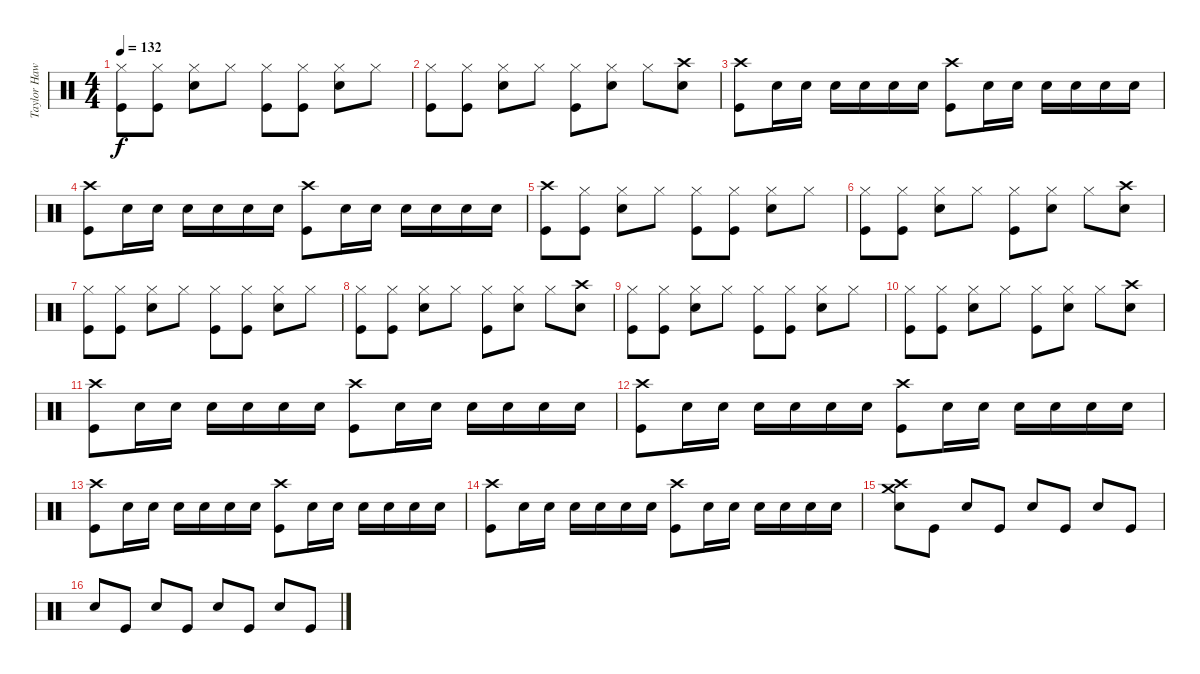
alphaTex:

\track ("Taylor Hawkins (Drums)" "Taylor Haw") {instrument percussion}
\staff {score}
\articulation defaults
\ts (4 4)
\tempo 132
\clef neutral
\ks c
("Kick (hit)" "Hi-Hat (closed)").8{dy f} ("Hi-Hat (closed)" "Kick (hit)").8 ("Hi-Hat (closed)" "Snare (hit) 2").8 "Hi-Hat (closed)".8 ("Hi-Hat (closed)" "Kick (hit)").8 ("Hi-Hat (closed)" "Kick (hit)").8 ("Hi-Hat (closed)" "Snare (hit) 2").8 "Hi-Hat (closed)".8 |
("Hi-Hat (closed)" "Kick (hit)").8 ("Hi-Hat (closed)" "Kick (hit)").8 ("Hi-Hat (closed)" "Snare (hit) 2").8 "Hi-Hat (closed)".8 ("Hi-Hat (closed)" "Kick (hit)").8 ("Hi-Hat (closed)" "Snare (hit) 2").8 "Hi-Hat (closed)".8 ("Crash high (hit)" "Snare (hit) 2").8 |
("Crash high (hit)" "Kick (hit)").8 "Snare (hit) 2".16 "Snare (hit) 2".16 "Snare (hit) 2".16 "Snare (hit) 2".16 "Snare (hit) 2".16 "Snare (hit) 2".16 ("Crash high (hit)" "Kick (hit)").8 "Snare (hit) 2".16 "Snare (hit) 2".16 "Snare (hit) 2".16 "Snare (hit) 2".16 "Snare (hit) 2".16 "Snare (hit) 2".16 |
("Crash high (hit)" "Kick (hit)").8 "Snare (hit) 2".16 "Snare (hit) 2".16 "Snare (hit) 2".16 "Snare (hit) 2".16 "Snare (hit) 2".16 "Snare (hit) 2".16 ("Crash high (hit)" "Kick (hit)").8 "Snare (hit) 2".16 "Snare (hit) 2".16 "Snare (hit) 2".16 "Snare (hit) 2".16 "Snare (hit) 2".16 "Snare (hit) 2".16 |
("Crash high (hit)" "Kick (hit)").8 ("Hi-Hat (closed)" "Kick (hit)").8 ("Hi-Hat (closed)" "Snare (hit) 2").8 "Hi-Hat (closed)".8 ("Hi-Hat (closed)" "Kick (hit)").8 ("Hi-Hat (closed)" "Kick (hit)").8 ("Hi-Hat (closed)" "Snare (hit) 2").8 "Hi-Hat (closed)".8 |
("Hi-Hat (closed)" "Kick (hit)").8 ("Hi-Hat (closed)" "Kick (hit)").8 ("Hi-Hat (closed)" "Snare (hit) 2").8 "Hi-Hat (closed)".8 ("Hi-Hat (closed)" "Kick (hit)").8 ("Hi-Hat (closed)" "Snare (hit) 2").8 "Hi-Hat (closed)".8 ("Crash high (hit)" "Snare (hit) 2").8 |
("Kick (hit)" "Hi-Hat (closed)").8 ("Hi-Hat (closed)" "Kick (hit)").8 ("Hi-Hat (closed)" "Snare (hit) 2").8 "Hi-Hat (closed)".8 ("Hi-Hat (closed)" "Kick (hit)").8 ("Hi-Hat (closed)" "Kick (hit)").8 ("Hi-Hat (closed)" "Snare (hit) 2").8 "Hi-Hat (closed)".8 |
("Hi-Hat (closed)" "Kick (hit)").8 ("Hi-Hat (closed)" "Kick (hit)").8 ("Hi-Hat (closed)" "Snare (hit) 2").8 "Hi-Hat (closed)".8 ("Hi-Hat (closed)" "Kick (hit)").8 ("Hi-Hat (closed)" "Snare (hit) 2").8 "Hi-Hat (closed)".8 ("Crash high (hit)" "Snare (hit) 2").8 |
("Kick (hit)" "Hi-Hat (closed)").8 ("Hi-Hat (closed)" "Kick (hit)").8 ("Hi-Hat (closed)" "Snare (hit) 2").8 "Hi-Hat (closed)".8 ("Hi-Hat (closed)" "Kick (hit)").8 ("Hi-Hat (closed)" "Kick (hit)").8 ("Hi-Hat (closed)" "Snare (hit) 2").8 "Hi-Hat (closed)".8 |
("Hi-Hat (closed)" "Kick (hit)").8 ("Hi-Hat (closed)" "Kick (hit)").8 ("Hi-Hat (closed)" "Snare (hit) 2").8 "Hi-Hat (closed)".8 ("Hi-Hat (closed)" "Kick (hit)").8 ("Hi-Hat (closed)" "Snare (hit) 2").8 "Hi-Hat (closed)".8 ("Crash high (hit)" "Snare (hit) 2").8 |
("Crash high (hit)" "Kick (hit)").8 "Snare (hit) 2".16 "Snare (hit) 2".16 "Snare (hit) 2".16 "Snare (hit) 2".16 "Snare (hit) 2".16 "Snare (hit) 2".16 ("Crash high (hit)" "Kick (hit)").8 "Snare (hit) 2".16 "Snare (hit) 2".16 "Snare (hit) 2".16 "Snare (hit) 2".16 "Snare (hit) 2".16 "Snare (hit) 2".16 |
("Crash high (hit)" "Kick (hit)").8 "Snare (hit) 2".16 "Snare (hit) 2".16 "Snare (hit) 2".16 "Snare (hit) 2".16 "Snare (hit) 2".16 "Snare (hit) 2".16 ("Crash high (hit)" "Kick (hit)").8 "Snare (hit) 2".16 "Snare (hit) 2".16 "Snare (hit) 2".16 "Snare (hit) 2".16 "Snare (hit) 2".16 "Snare (hit) 2".16 |
("Crash high (hit)" "Kick (hit)").8 "Snare (hit) 2".16 "Snare (hit) 2".16 "Snare (hit) 2".16 "Snare (hit) 2".16 "Snare (hit) 2".16 "Snare (hit) 2".16 ("Crash high (hit)" "Kick (hit)").8 "Snare (hit) 2".16 "Snare (hit) 2".16 "Snare (hit) 2".16 "Snare (hit) 2".16 "Snare (hit) 2".16 "Snare (hit) 2".16 |
("Crash high (hit)" "Kick (hit)").8 "Snare (hit) 2".16 "Snare (hit) 2".16 "Snare (hit) 2".16 "Snare (hit) 2".16 "Snare (hit) 2".16 "Snare (hit) 2".16 ("Crash high (hit)" "Kick (hit)").8 "Snare (hit) 2".16 "Snare (hit) 2".16 "Snare (hit) 2".16 "Snare (hit) 2".16 "Snare (hit) 2".16 "Snare (hit) 2".16 |
("Crash high (hit)" "Crash medium (hit)" "Snare (hit) 2").8 "Kick (hit)".8 "Snare (hit) 2".8 "Kick (hit)".8 "Snare (hit) 2".8 "Kick (hit)".8 "Snare (hit) 2".8 "Kick (hit)".8 |
"Snare (hit) 2".8 "Kick (hit)".8 "Snare (hit) 2".8 "Kick (hit)".8 "Snare (hit) 2".8 "Kick (hit)".8 "Snare (hit) 2".8 "Kick (hit)".8
